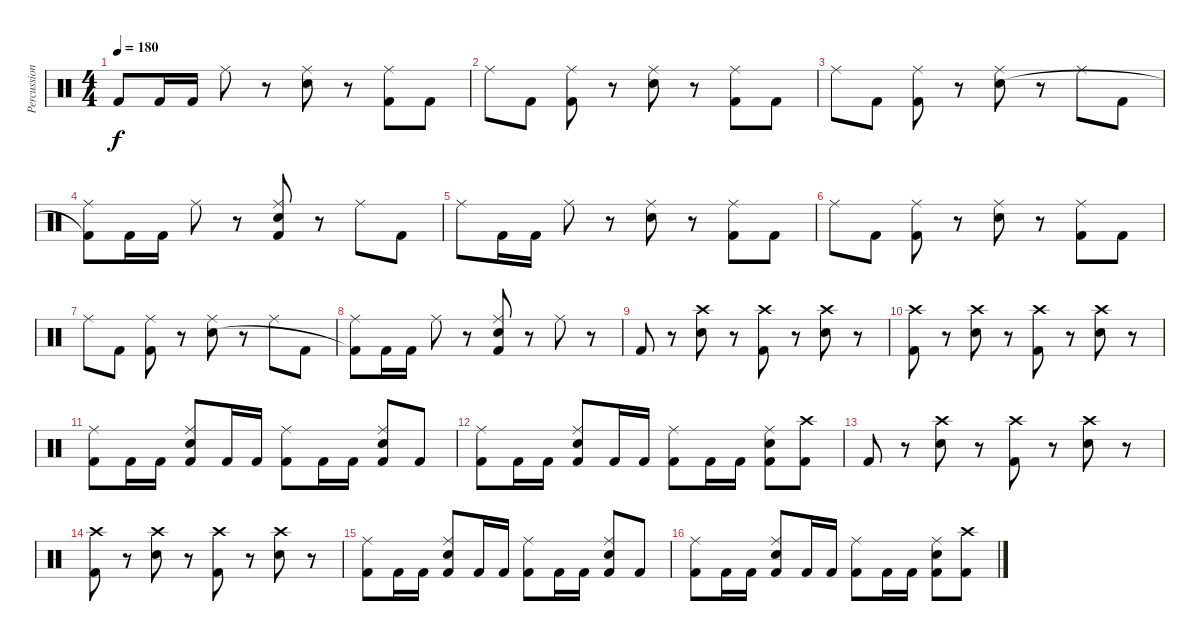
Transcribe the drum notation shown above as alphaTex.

\track ("Percussion" "Percussion") {instrument percussion}
\staff {score}
\articulation defaults
\ts (4 4)
\tempo 180
\clef neutral
\ks c "Kick (hit) 2"{t}.8{dy f} "Kick (hit) 2".16 "Kick (hit) 2".16 "Ride (middle)".8
r.8 ("Ride (middle)" "Snare (hit) 2").8 r.8 ("Ride (middle)" "Kick (hit) 2").8 "Kick (hit) 2".8 |
"Ride (middle)".8 "Kick (hit) 2".8 ("Ride (middle)" "Kick (hit) 2").8 r.8 ("Ride (middle)" "Snare (hit) 2").8 r.8 ("Ride (middle)" "Kick (hit) 2").8 "Kick (hit) 2".8 |
"Ride (middle)".8 "Kick (hit) 2".8 ("Ride (middle)" "Kick (hit) 2").8 r.8 ("Ride (middle)" "Snare (hit) 2").8 r.8 "Ride (middle)".8 "Kick (hit) 2".8 |
("Ride (middle)" "Kick (hit) 2"{t}).8 "Kick (hit) 2".16 "Kick (hit) 2".16 "Ride (middle)".8 r.8 ("Ride (middle)" "Snare (hit) 2" "Kick (hit) 2").8 r.8 "Ride (middle)".8 "Kick (hit) 2".8 |
"Ride (middle)".8 "Kick (hit) 2".16 "Kick (hit) 2".16 "Ride (middle)".8 r.8 ("Ride (middle)" "Snare (hit) 2").8 r.8 ("Ride (middle)" "Kick (hit) 2").8 "Kick (hit) 2".8 |
"Ride (middle)".8 "Kick (hit) 2".8 ("Ride (middle)" "Kick (hit) 2").8 r.8 ("Ride (middle)" "Snare (hit) 2").8 r.8 ("Ride (middle)" "Kick (hit) 2").8 "Kick (hit) 2".8 |
"Ride (middle)".8 "Kick (hit) 2".8 ("Ride (middle)" "Kick (hit) 2").8 r.8 ("Ride (middle)" "Snare (hit) 2").8 r.8 "Ride (middle)".8 "Kick (hit) 2".8 |
("Ride (middle)" "Kick (hit) 2"{t}).8 "Kick (hit) 2".16 "Kick (hit) 2".16 "Ride (middle)".8 r.8 ("Ride (middle)" "Snare (hit) 2" "Kick (hit) 2").8 r.8 "Ride (middle)".8 r.8 |
"Kick (hit) 2".8 r.8 ("Crash high (hit)" "Snare (hit) 2").8 r.8 ("Crash high (hit)" "Kick (hit) 2").8 r.8 ("Crash high (hit)" "Snare (hit) 2").8 r.8 |
("Crash high (hit)" "Kick (hit) 2").8 r.8 ("Crash high (hit)" "Snare (hit) 2").8 r.8 ("Crash high (hit)" "Kick (hit) 2").8 r.8 ("Crash high (hit)" "Snare (hit) 2").8 r.8 |
("Ride (middle)" "Kick (hit) 2").8 "Kick (hit) 2".16 "Kick (hit) 2".16 ("Ride (middle)" "Snare (hit) 2" "Kick (hit) 2").8 "Kick (hit) 2".16 "Kick (hit) 2".16 ("Ride (middle)" "Kick (hit) 2").8 "Kick (hit) 2".16 "Kick (hit) 2".16 ("Ride (middle)" "Snare (hit) 2" "Kick (hit) 2").8 "Kick (hit) 2".8 |
("Ride (middle)" "Kick (hit) 2").8 "Kick (hit) 2".16 "Kick (hit) 2".16 ("Ride (middle)" "Snare (hit) 2" "Kick (hit) 2").8 "Kick (hit) 2".16 "Kick (hit) 2".16 ("Ride (middle)" "Kick (hit) 2").8 "Kick (hit) 2".16 "Kick (hit) 2".16 ("Ride (middle)" "Snare (hit) 2" "Kick (hit) 2").8 ("Crash high (hit)" "Kick (hit) 2").8 |
"Kick (hit) 2".8 r.8 ("Crash high (hit)" "Snare (hit) 2").8 r.8 ("Crash high (hit)" "Kick (hit) 2").8 r.8 ("Crash high (hit)" "Snare (hit) 2").8 r.8 |
("Crash high (hit)" "Kick (hit) 2").8 r.8 ("Crash high (hit)" "Snare (hit) 2").8 r.8 ("Crash high (hit)" "Kick (hit) 2").8 r.8 ("Crash high (hit)" "Snare (hit) 2").8 r.8 |
("Ride (middle)" "Kick (hit) 2").8 "Kick (hit) 2".16 "Kick (hit) 2".16 ("Ride (middle)" "Snare (hit) 2" "Kick (hit) 2").8 "Kick (hit) 2".16 "Kick (hit) 2".16 ("Ride (middle)" "Kick (hit) 2").8 "Kick (hit) 2".16 "Kick (hit) 2".16 ("Ride (middle)" "Snare (hit) 2" "Kick (hit) 2").8 "Kick (hit) 2".8 |
("Ride (middle)" "Kick (hit) 2").8 "Kick (hit) 2".16 "Kick (hit) 2".16 ("Ride (middle)" "Snare (hit) 2" "Kick (hit) 2").8 "Kick (hit) 2".16 "Kick (hit) 2".16 ("Ride (middle)" "Kick (hit) 2").8 "Kick (hit) 2".16 "Kick (hit) 2".16 ("Ride (middle)" "Snare (hit) 2" "Kick (hit) 2").8 ("Crash high (hit)" "Kick (hit) 2").8
